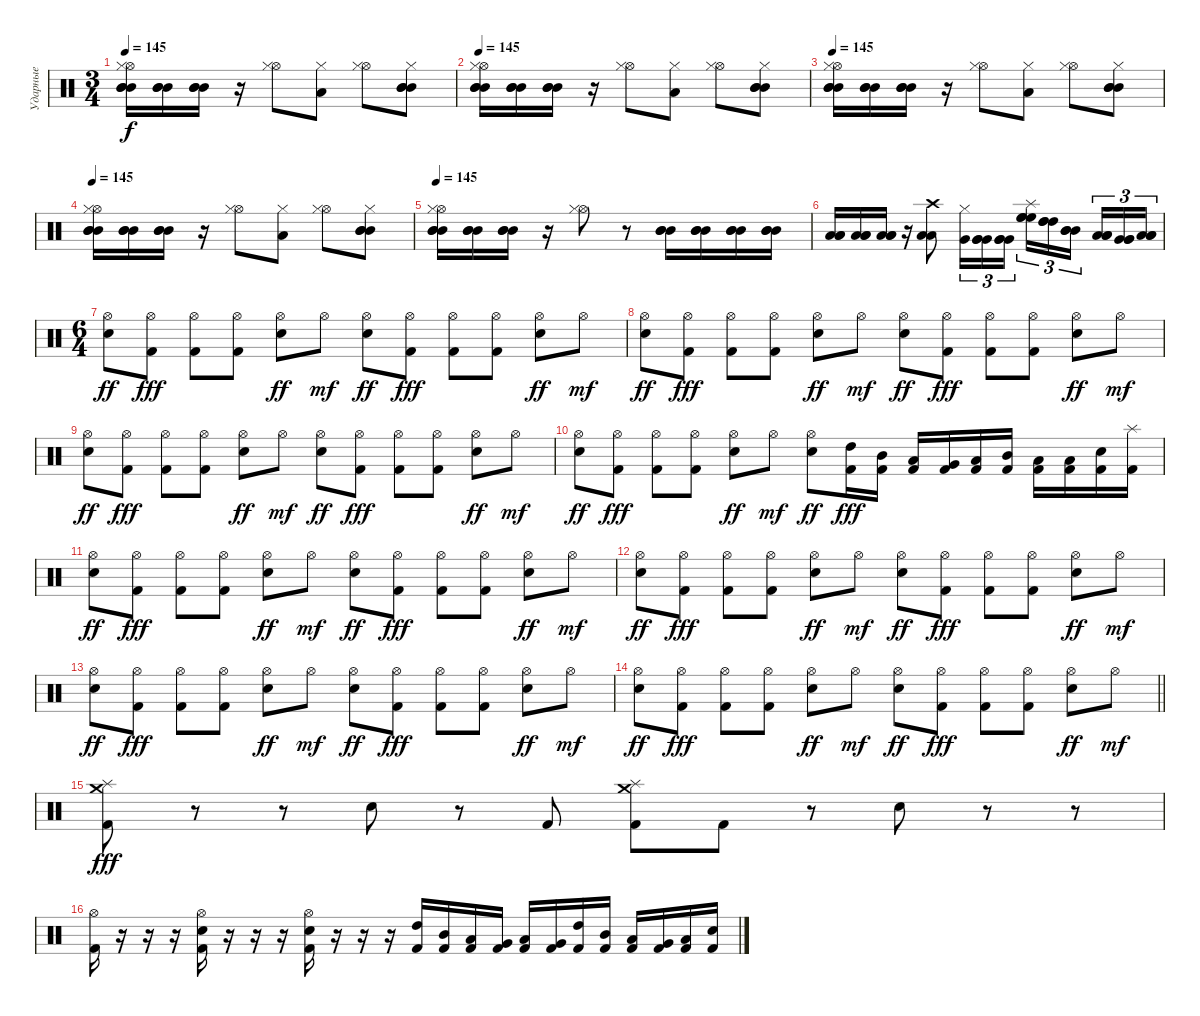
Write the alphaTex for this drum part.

\track ("Ударные" "Ударные") {instrument percussion}
\staff {score}
\articulation defaults
\ts (3 4)
\tempo 145
\clef neutral
\ks c
("Hi-Hat (open)" "Mid Tom (hit)" "Mid Tom (hit)" "Mid Tom (hit)" "Hi-Hat (closed)").16{dy f} ("Mid Tom (hit)" "Mid Tom (hit)" "Mid Tom (hit)").16 ("Mid Tom (hit)" "Mid Tom (hit)" "Mid Tom (hit)").16 r.16 ("Hi-Hat (open)" "Hi-Hat (closed)").8 ("Low Tom (hit)" "Hi-Hat (closed)").8 ("Hi-Hat (open)" "Hi-Hat (closed)").8 ("Mid Tom (hit)" "Mid Tom (hit)" "Mid Tom (hit)" "Hi-Hat (closed)").8 |
\tempo 145
("Hi-Hat (open)" "Mid Tom (hit)" "Mid Tom (hit)" "Mid Tom (hit)" "Hi-Hat (closed)").16 ("Mid Tom (hit)" "Mid Tom (hit)" "Mid Tom (hit)").16 ("Mid Tom (hit)" "Mid Tom (hit)" "Mid Tom (hit)").16 r.16 ("Hi-Hat (open)" "Hi-Hat (closed)").8 ("Low Tom (hit)" "Hi-Hat (closed)").8 ("Hi-Hat (open)" "Hi-Hat (closed)").8 ("Mid Tom (hit)" "Mid Tom (hit)" "Mid Tom (hit)" "Hi-Hat (closed)").8 |
\tempo 145
("Hi-Hat (open)" "Mid Tom (hit)" "Mid Tom (hit)" "Mid Tom (hit)" "Hi-Hat (closed)").16 ("Mid Tom (hit)" "Mid Tom (hit)" "Mid Tom (hit)").16 ("Mid Tom (hit)" "Mid Tom (hit)" "Mid Tom (hit)").16 r.16 ("Hi-Hat (open)" "Hi-Hat (closed)").8 ("Low Tom (hit)" "Hi-Hat (closed)").8 ("Hi-Hat (open)" "Hi-Hat (closed)").8 ("Mid Tom (hit)" "Mid Tom (hit)" "Mid Tom (hit)" "Hi-Hat (closed)").8 |
\tempo 145
("Hi-Hat (open)" "Mid Tom (hit)" "Mid Tom (hit)" "Mid Tom (hit)" "Hi-Hat (closed)").16 ("Mid Tom (hit)" "Mid Tom (hit)" "Mid Tom (hit)").16 ("Mid Tom (hit)" "Mid Tom (hit)" "Mid Tom (hit)").16 r.16 ("Hi-Hat (open)" "Hi-Hat (closed)").8 ("Low Tom (hit)" "Hi-Hat (closed)").8 ("Hi-Hat (open)" "Hi-Hat (closed)").8 ("Mid Tom (hit)" "Mid Tom (hit)" "Mid Tom (hit)" "Hi-Hat (closed)").8 |
\tempo 145
("Hi-Hat (open)" "Mid Tom (hit)" "Mid Tom (hit)" "Mid Tom (hit)" "Hi-Hat (closed)").16 ("Mid Tom (hit)" "Mid Tom (hit)" "Mid Tom (hit)").16 ("Mid Tom (hit)" "Mid Tom (hit)" "Mid Tom (hit)").16 r.16 ("Hi-Hat (open)" "Hi-Hat (closed)").8 r.8 ("Mid Tom (hit)" "Mid Tom (hit)" "Mid Tom (hit)").16 ("Mid Tom (hit)" "Mid Tom (hit)" "Mid Tom (hit)").16 ("Mid Tom (hit)" "Mid Tom (hit)" "Mid Tom (hit)").16 ("Mid Tom (hit)" "Mid Tom (hit)" "Mid Tom (hit)").16 |
("Low Tom (hit)" "Low Tom (hit)" "Low Tom (hit)").16 ("Low Tom (hit)" "Low Tom (hit)" "Low Tom (hit)").16 ("Low Tom (hit)" "Low Tom (hit)" "Low Tom (hit)").16 r.16 ("Crash high (hit)" "Low Tom (hit)" "Low Tom (hit)").8 ("Very Low Tom (hit)" "Hi-Hat (closed)").16{tu (3 2)} ("Very Low Tom (hit)" "Very Low Tom (hit)" "Very Low Tom (hit)").16{tu (3 2)} ("Very Low Tom (hit)" "Very Low Tom (hit)" "Very Low Tom (hit)").16{tu (3 2)} ("Splash (hit)" "High Floor Tom (hit)" "High Floor Tom (hit)" "High Floor Tom (hit)").16{tu (3 2) balance 11} ("High Tom (hit)" "High Tom (hit)" "High Tom (hit)").16{tu (3 2) balance 10} ("Mid Tom (hit)" "Mid Tom (hit)" "Mid Tom (hit)").16{tu (3 2) balance 10 beam splitsecondary} ("Low Tom (hit)" "Low Tom (hit)" "Low Tom (hit)").16{tu (3 2) balance 7} ("Very Low Tom (hit)" "Very Low Tom (hit)" "Very Low Tom (hit)").16{tu (3 2) balance 6} ("Low Floor Tom (hit)" "Low Floor Tom (hit)" "Low Floor Tom (hit)").16{tu (3 2) balance 5} |
\ts (6 4)
("Hi-Hat (open)" "Electric Snare (hit)").8{dy ff} ("Hi-Hat (open)" "Kick (hit) 2").8{dy fff} ("Hi-Hat (open)" "Kick (hit) 2").8 ("Hi-Hat (open)" "Kick (hit) 2").8 ("Hi-Hat (open)" "Electric Snare (hit)").8{dy ff} "Hi-Hat (open)".8{dy mf} ("Hi-Hat (open)" "Electric Snare (hit)").8{dy ff} ("Hi-Hat (open)" "Kick (hit) 2").8{dy fff} ("Hi-Hat (open)" "Kick (hit) 2").8 ("Hi-Hat (open)" "Kick (hit) 2").8 ("Hi-Hat (open)" "Electric Snare (hit)").8{dy ff} "Hi-Hat (open)".8{dy mf} |
("Hi-Hat (open)" "Electric Snare (hit)").8{dy ff} ("Hi-Hat (open)" "Kick (hit) 2").8{dy fff} ("Hi-Hat (open)" "Kick (hit) 2").8 ("Hi-Hat (open)" "Kick (hit) 2").8 ("Hi-Hat (open)" "Electric Snare (hit)").8{dy ff} "Hi-Hat (open)".8{dy mf} ("Hi-Hat (open)" "Electric Snare (hit)").8{dy ff} ("Hi-Hat (open)" "Kick (hit) 2").8{dy fff} ("Hi-Hat (open)" "Kick (hit) 2").8 ("Hi-Hat (open)" "Kick (hit) 2").8 ("Hi-Hat (open)" "Electric Snare (hit)").8{dy ff} "Hi-Hat (open)".8{dy mf} |
("Hi-Hat (open)" "Electric Snare (hit)").8{dy ff} ("Hi-Hat (open)" "Kick (hit) 2").8{dy fff} ("Hi-Hat (open)" "Kick (hit) 2").8 ("Hi-Hat (open)" "Kick (hit) 2").8 ("Hi-Hat (open)" "Electric Snare (hit)").8{dy ff} "Hi-Hat (open)".8{dy mf} ("Hi-Hat (open)" "Electric Snare (hit)").8{dy ff} ("Hi-Hat (open)" "Kick (hit) 2").8{dy fff} ("Hi-Hat (open)" "Kick (hit) 2").8 ("Hi-Hat (open)" "Kick (hit) 2").8 ("Hi-Hat (open)" "Electric Snare (hit)").8{dy ff} "Hi-Hat (open)".8{dy mf} |
("Hi-Hat (open)" "Electric Snare (hit)").8{dy ff} ("Hi-Hat (open)" "Kick (hit) 2").8{dy fff} ("Hi-Hat (open)" "Kick (hit) 2").8 ("Hi-Hat (open)" "Kick (hit) 2").8 ("Hi-Hat (open)" "Electric Snare (hit)").8{dy ff} "Hi-Hat (open)".8{dy mf} ("Hi-Hat (open)" "Electric Snare (hit)").8{dy ff} ("High Tom (hit)" "Kick (hit) 2").16{dy fff} ("Mid Tom (hit)" "Kick (hit) 2").16 ("Low Tom (hit)" "Kick (hit) 2").16 ("Very Low Tom (hit)" "Kick (hit) 2").16 ("Low Floor Tom (hit)" "Kick (hit) 2").16 ("Mid Tom (hit)" "Kick (hit) 2").16 ("Low Tom (hit)" "Kick (hit) 2").16 ("Low Floor Tom (hit)" "Kick (hit) 2").16 ("Electric Snare (hit)" "Kick (hit) 2").16 ("Splash (hit)" "Kick (hit) 2").16 |
("Hi-Hat (open)" "Electric Snare (hit)").8{dy ff} ("Hi-Hat (open)" "Kick (hit) 2").8{dy fff} ("Hi-Hat (open)" "Kick (hit) 2").8 ("Hi-Hat (open)" "Kick (hit) 2").8 ("Hi-Hat (open)" "Electric Snare (hit)").8{dy ff} "Hi-Hat (open)".8{dy mf} ("Hi-Hat (open)" "Electric Snare (hit)").8{dy ff} ("Hi-Hat (open)" "Kick (hit) 2").8{dy fff} ("Hi-Hat (open)" "Kick (hit) 2").8 ("Hi-Hat (open)" "Kick (hit) 2").8 ("Hi-Hat (open)" "Electric Snare (hit)").8{dy ff} "Hi-Hat (open)".8{dy mf} |
("Hi-Hat (open)" "Electric Snare (hit)").8{dy ff} ("Hi-Hat (open)" "Kick (hit) 2").8{dy fff} ("Hi-Hat (open)" "Kick (hit) 2").8 ("Hi-Hat (open)" "Kick (hit) 2").8 ("Hi-Hat (open)" "Electric Snare (hit)").8{dy ff} "Hi-Hat (open)".8{dy mf} ("Hi-Hat (open)" "Electric Snare (hit)").8{dy ff} ("Hi-Hat (open)" "Kick (hit) 2").8{dy fff} ("Hi-Hat (open)" "Kick (hit) 2").8 ("Hi-Hat (open)" "Kick (hit) 2").8 ("Hi-Hat (open)" "Electric Snare (hit)").8{dy ff} "Hi-Hat (open)".8{dy mf} |
("Hi-Hat (open)" "Electric Snare (hit)").8{dy ff} ("Hi-Hat (open)" "Kick (hit) 2").8{dy fff} ("Hi-Hat (open)" "Kick (hit) 2").8 ("Hi-Hat (open)" "Kick (hit) 2").8 ("Hi-Hat (open)" "Electric Snare (hit)").8{dy ff} "Hi-Hat (open)".8{dy mf} ("Hi-Hat (open)" "Electric Snare (hit)").8{dy ff} ("Hi-Hat (open)" "Kick (hit) 2").8{dy fff} ("Hi-Hat (open)" "Kick (hit) 2").8 ("Hi-Hat (open)" "Kick (hit) 2").8 ("Hi-Hat (open)" "Electric Snare (hit)").8{dy ff} "Hi-Hat (open)".8{dy mf} |
\barLineRight lightlight
("Hi-Hat (open)" "Electric Snare (hit)").8{dy ff} ("Hi-Hat (open)" "Kick (hit) 2").8{dy fff} ("Hi-Hat (open)" "Kick (hit) 2").8 ("Hi-Hat (open)" "Kick (hit) 2").8 ("Hi-Hat (open)" "Electric Snare (hit)").8{dy ff} "Hi-Hat (open)".8{dy mf} ("Hi-Hat (open)" "Electric Snare (hit)").8{dy ff} ("Hi-Hat (open)" "Kick (hit) 2").8{dy fff} ("Hi-Hat (open)" "Kick (hit) 2").8 ("Hi-Hat (open)" "Kick (hit) 2").8 ("Hi-Hat (open)" "Electric Snare (hit)").8{dy ff} "Hi-Hat (open)".8{dy mf} |
("Crash medium (hit)" "Splash (hit)" "Kick (hit) 2").8{dy fff} r.8 r.8 "Electric Snare (hit)".8 r.8 "Kick (hit) 2".8 ("Crash medium (hit)" "Splash (hit)" "Kick (hit) 2").8 "Kick (hit) 2".8 r.8 "Electric Snare (hit)".8 r.8 r.8 |
("Hi-Hat (open)" "Kick (hit) 2").16 r.16 r.16 r.16 ("Hi-Hat (open)" "Electric Snare (hit)" "Kick (hit) 2").16 r.16 r.16 r.16 ("Hi-Hat (open)" "Electric Snare (hit)" "Kick (hit) 2").16 r.16 r.16 r.16 ("High Tom (hit)" "Kick (hit) 2").16 ("Mid Tom (hit)" "Kick (hit) 2").16 ("Low Tom (hit)" "Kick (hit) 2").16 ("Very Low Tom (hit)" "Kick (hit) 2").16 ("Low Floor Tom (hit)" "Kick (hit) 2").16 ("Very Low Tom (hit)" "Kick (hit) 2").16 ("High Tom (hit)" "Kick (hit) 2").16 ("Mid Tom (hit)" "Kick (hit) 2").16 ("Low Tom (hit)" "Kick (hit) 2").16 ("Very Low Tom (hit)" "Kick (hit) 2").16 ("Low Floor Tom (hit)" "Kick (hit) 2").16 ("Electric Snare (hit)" "Kick (hit) 2").16
